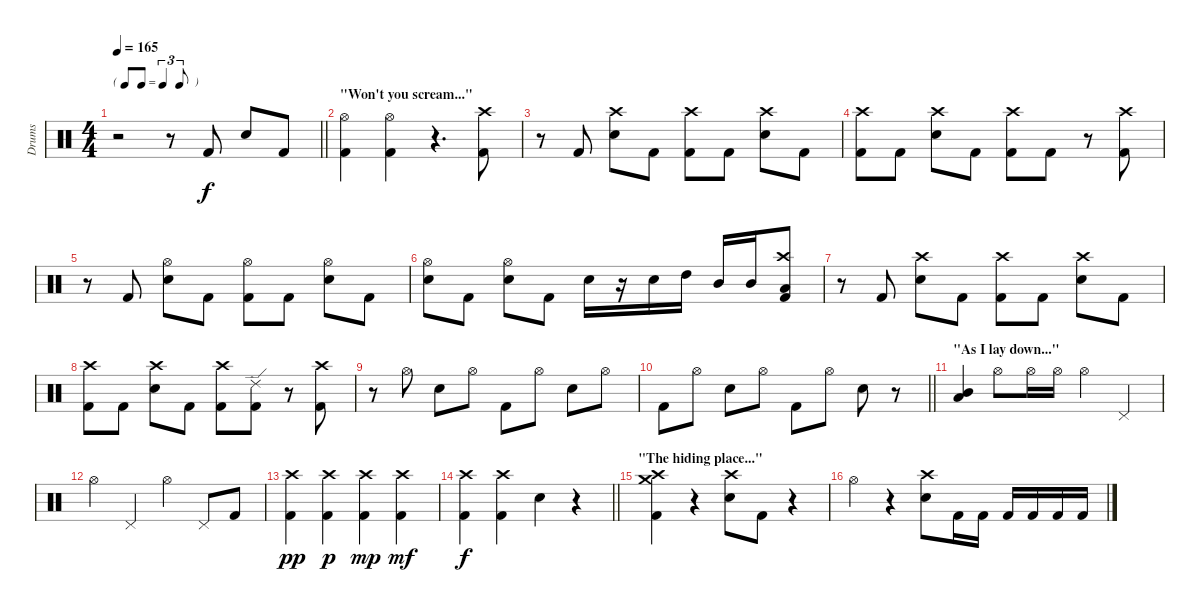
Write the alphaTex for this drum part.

\track ("Drums" "Drums") {instrument percussion}
\staff {score}
\articulation defaults
\ts (4 4)
\tf triplet8th
\tempo 165
\clef neutral
\barLineRight lightlight
\ks c
r.2{dy f} r.8 "Kick (hit) 2".8 "Electric Snare (hit)".8 "Kick (hit) 2".8 |
\section ("" "\"Won't you scream...\"")
("Hi-Hat (open)" "Kick (hit) 2").4 ("Hi-Hat (open)" "Kick (hit) 2").4 r.4{d} ("Crash high (hit)" "Kick (hit) 2").8 |
r.8 "Kick (hit) 2".8 ("Crash high (hit)" "Electric Snare (hit)").8 "Kick (hit) 2".8 ("Crash high (hit)" "Kick (hit) 2").8 "Kick (hit) 2".8 ("Crash high (hit)" "Electric Snare (hit)").8 "Kick (hit) 2".8 |
("Crash high (hit)" "Kick (hit) 2").8 "Kick (hit) 2".8 ("Crash high (hit)" "Electric Snare (hit)").8 "Kick (hit) 2".8 ("Crash high (hit)" "Kick (hit) 2").8 "Kick (hit) 2".8 r.8 ("Crash high (hit)" "Kick (hit) 2").8 |
r.8 "Kick (hit) 2".8 ("Hi-Hat (open)" "Electric Snare (hit)").8 "Kick (hit) 2".8 ("Hi-Hat (open)" "Kick (hit) 2").8 "Kick (hit) 2".8 ("Hi-Hat (open)" "Electric Snare (hit)").8 "Kick (hit) 2".8 |
("Hi-Hat (open)" "Electric Snare (hit)").8 "Kick (hit) 2".8 ("Hi-Hat (open)" "Electric Snare (hit)").8 "Kick (hit) 2".8 "Electric Snare (hit)".16 r.16 "Electric Snare (hit)".16 "High Tom (hit)".16 "Mid Tom (hit)".16 "Mid Tom (hit)".16 ("Crash high (hit)" "Low Tom (hit)" "Kick (hit) 2").8 |
r.8 "Kick (hit) 2".8 ("Crash high (hit)" "Electric Snare (hit)").8 "Kick (hit) 2".8 ("Crash high (hit)" "Kick (hit) 2").8 "Kick (hit) 2".8 ("Crash high (hit)" "Electric Snare (hit)").8 "Kick (hit) 2".8 |
("Crash high (hit)" "Kick (hit) 2").8 "Kick (hit) 2".8 ("Crash high (hit)" "Electric Snare (hit)").8 "Kick (hit) 2".8 ("Crash high (hit)" "Kick (hit) 2").8 ("Ride (edge) 2" "Kick (hit) 2").8 r.8 ("Crash high (hit)" "Kick (hit) 2").8 |
r.8 "Hi-Hat (open)".8 "Electric Snare (hit)".8 "Hi-Hat (open)".8 "Kick (hit) 2".8 "Hi-Hat (open)".8 "Electric Snare (hit)".8 "Hi-Hat (open)".8 |
\barLineRight lightlight "Kick (hit) 2".8 "Hi-Hat (open)".8 "Electric Snare (hit)".8 "Hi-Hat (open)".8 "Kick (hit) 2".8 "Hi-Hat (open)".8 "Electric Snare (hit)".8
r.8 |
\section ("" "\"As I lay down...\"")
("Mid Tom (hit)" "Low Tom (hit)").4 "Hi-Hat (open)".8 "Hi-Hat (open)".16 "Hi-Hat (open)".16 "Hi-Hat (open)".4 "Pedal Hi-Hat (hit)".4 |
"Hi-Hat (open)".4 "Pedal Hi-Hat (hit)".4 "Hi-Hat (open)".4 "Pedal Hi-Hat (hit)".8 "Kick (hit) 2".8 |
("Crash high (hit)" "Kick (hit) 2").4{dy pp} ("Crash high (hit)" "Kick (hit) 2").4{dy p} ("Crash high (hit)" "Kick (hit) 2").4{dy mp} ("Crash high (hit)" "Kick (hit) 2").4{dy mf} |
\barLineRight lightlight
("Crash high (hit)" "Kick (hit) 2").4{dy f} ("Crash high (hit)" "Kick (hit) 2").4 "Electric Snare (hit)".4 r.4 |
\section ("" "\"The hiding place...\"")
("Crash high (hit)" "Crash medium (hit)" "Kick (hit) 2").4 r.4 ("Crash high (hit)" "Electric Snare (hit)").8 "Kick (hit) 2".8 r.4 |
"Hi-Hat (open)".4 r.4 ("Crash high (hit)" "Electric Snare (hit)").8 "Kick (hit) 2".16 "Kick (hit) 2".16 "Kick (hit) 2".16 "Kick (hit) 2".16 "Kick (hit) 2".16 "Kick (hit) 2".16
